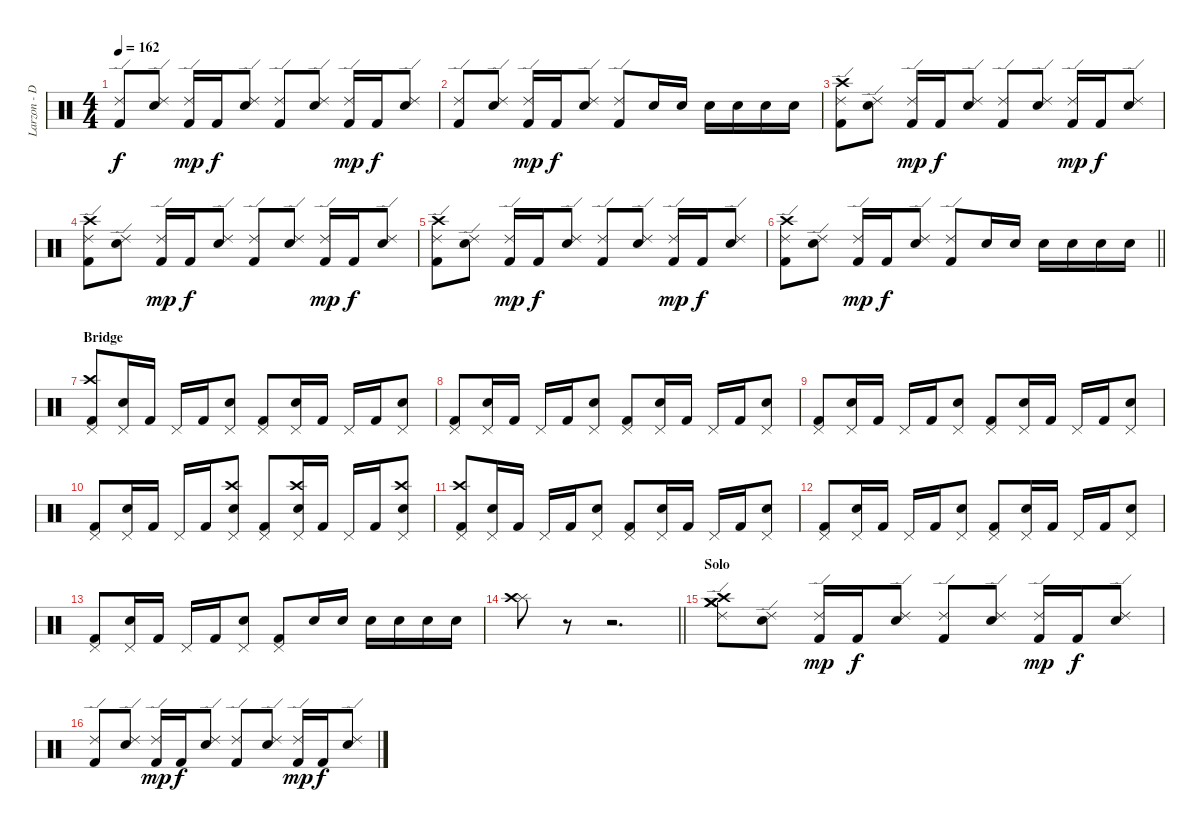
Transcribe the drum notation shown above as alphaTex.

\track ("Larzon - Drums" "Larzon - D") {instrument percussion}
\staff {score}
\articulation defaults
\ts (4 4)
\tempo 162
\clef neutral
\ks c
("Kick (hit) 2" "Ride (edge) 2").8{dy f} ("Snare (hit) 2" "Ride (edge) 2").8 ("Kick (hit) 2" "Ride (edge) 2").16{dy mp} "Kick (hit) 2".16{dy f} ("Snare (hit) 2" "Ride (edge) 2").8 ("Kick (hit) 2" "Ride (edge) 2").8 ("Snare (hit) 2" "Ride (edge) 2").8 ("Kick (hit) 2" "Ride (edge) 2").16{dy mp} "Kick (hit) 2".16{dy f} ("Snare (hit) 2" "Ride (edge) 2").8 |
("Kick (hit) 2" "Ride (edge) 2").8 ("Snare (hit) 2" "Ride (edge) 2").8 ("Kick (hit) 2" "Ride (edge) 2").16{dy mp} "Kick (hit) 2".16{dy f} ("Snare (hit) 2" "Ride (edge) 2").8 ("Kick (hit) 2" "Ride (edge) 2").8 "Snare (hit) 2".16 "Snare (hit) 2".16 "Snare (hit) 2".16 "Snare (hit) 2".16 "Snare (hit) 2".16 "Snare (hit) 2".16 |
("Kick (hit) 2" "Ride (edge) 2" "Crash high (hit)").8 ("Snare (hit) 2" "Ride (edge) 2").8 ("Kick (hit) 2" "Ride (edge) 2").16{dy mp} "Kick (hit) 2".16{dy f} ("Snare (hit) 2" "Ride (edge) 2").8 ("Kick (hit) 2" "Ride (edge) 2").8 ("Snare (hit) 2" "Ride (edge) 2").8 ("Kick (hit) 2" "Ride (edge) 2").16{dy mp} "Kick (hit) 2".16{dy f} ("Snare (hit) 2" "Ride (edge) 2").8 |
("Kick (hit) 2" "Ride (edge) 2" "Crash high (hit)").8 ("Snare (hit) 2" "Ride (edge) 2").8 ("Kick (hit) 2" "Ride (edge) 2").16{dy mp} "Kick (hit) 2".16{dy f} ("Snare (hit) 2" "Ride (edge) 2").8 ("Kick (hit) 2" "Ride (edge) 2").8 ("Snare (hit) 2" "Ride (edge) 2").8 ("Kick (hit) 2" "Ride (edge) 2").16{dy mp} "Kick (hit) 2".16{dy f} ("Snare (hit) 2" "Ride (edge) 2").8 |
("Kick (hit) 2" "Ride (edge) 2" "Crash high (hit)").8 ("Snare (hit) 2" "Ride (edge) 2").8 ("Kick (hit) 2" "Ride (edge) 2").16{dy mp} "Kick (hit) 2".16{dy f} ("Snare (hit) 2" "Ride (edge) 2").8 ("Kick (hit) 2" "Ride (edge) 2").8 ("Snare (hit) 2" "Ride (edge) 2").8 ("Kick (hit) 2" "Ride (edge) 2").16{dy mp} "Kick (hit) 2".16{dy f} ("Snare (hit) 2" "Ride (edge) 2").8 |
\barLineRight lightlight
("Kick (hit) 2" "Ride (edge) 2" "Crash high (hit)").8 ("Snare (hit) 2" "Ride (edge) 2").8 ("Kick (hit) 2" "Ride (edge) 2").16{dy mp} "Kick (hit) 2".16{dy f} ("Snare (hit) 2" "Ride (edge) 2").8 ("Kick (hit) 2" "Ride (edge) 2").8 "Snare (hit) 2".16 "Snare (hit) 2".16 "Snare (hit) 2".16 "Snare (hit) 2".16 "Snare (hit) 2".16 "Snare (hit) 2".16 |
\section ("" "Bridge")
("Kick (hit) 2" "Pedal Hi-Hat (hit)" "Crash high (hit)").8 ("Snare (hit) 2" "Pedal Hi-Hat (hit)").16 "Kick (hit) 2".16 "Pedal Hi-Hat (hit)".16 "Kick (hit) 2".16 ("Snare (hit) 2" "Pedal Hi-Hat (hit)").8 ("Kick (hit) 2" "Pedal Hi-Hat (hit)").8 ("Snare (hit) 2" "Pedal Hi-Hat (hit)").16 "Kick (hit) 2".16 "Pedal Hi-Hat (hit)".16 "Kick (hit) 2".16 ("Snare (hit) 2" "Pedal Hi-Hat (hit)").8 |
("Kick (hit) 2" "Pedal Hi-Hat (hit)").8 ("Snare (hit) 2" "Pedal Hi-Hat (hit)").16 "Kick (hit) 2".16 "Pedal Hi-Hat (hit)".16 "Kick (hit) 2".16 ("Snare (hit) 2" "Pedal Hi-Hat (hit)").8 ("Kick (hit) 2" "Pedal Hi-Hat (hit)").8 ("Snare (hit) 2" "Pedal Hi-Hat (hit)").16 "Kick (hit) 2".16 "Pedal Hi-Hat (hit)".16 "Kick (hit) 2".16 ("Snare (hit) 2" "Pedal Hi-Hat (hit)").8 |
("Kick (hit) 2" "Pedal Hi-Hat (hit)").8 ("Snare (hit) 2" "Pedal Hi-Hat (hit)").16 "Kick (hit) 2".16 "Pedal Hi-Hat (hit)".16 "Kick (hit) 2".16 ("Snare (hit) 2" "Pedal Hi-Hat (hit)").8 ("Kick (hit) 2" "Pedal Hi-Hat (hit)").8 ("Snare (hit) 2" "Pedal Hi-Hat (hit)").16 "Kick (hit) 2".16 "Pedal Hi-Hat (hit)".16 "Kick (hit) 2".16 ("Snare (hit) 2" "Pedal Hi-Hat (hit)").8 |
("Kick (hit) 2" "Pedal Hi-Hat (hit)").8 ("Snare (hit) 2" "Pedal Hi-Hat (hit)").16 "Kick (hit) 2".16 "Pedal Hi-Hat (hit)".16 "Kick (hit) 2".16 ("Snare (hit) 2" "Pedal Hi-Hat (hit)" "Crash high (hit)").8 ("Kick (hit) 2" "Pedal Hi-Hat (hit)").8 ("Snare (hit) 2" "Pedal Hi-Hat (hit)" "Crash high (hit)").16 "Kick (hit) 2".16 "Pedal Hi-Hat (hit)".16 "Kick (hit) 2".16 ("Snare (hit) 2" "Pedal Hi-Hat (hit)" "Crash high (hit)").8 |
("Kick (hit) 2" "Pedal Hi-Hat (hit)" "Crash high (hit)").8 ("Snare (hit) 2" "Pedal Hi-Hat (hit)").16 "Kick (hit) 2".16 "Pedal Hi-Hat (hit)".16 "Kick (hit) 2".16 ("Snare (hit) 2" "Pedal Hi-Hat (hit)").8 ("Kick (hit) 2" "Pedal Hi-Hat (hit)").8 ("Snare (hit) 2" "Pedal Hi-Hat (hit)").16 "Kick (hit) 2".16 "Pedal Hi-Hat (hit)".16 "Kick (hit) 2".16 ("Snare (hit) 2" "Pedal Hi-Hat (hit)").8 |
("Kick (hit) 2" "Pedal Hi-Hat (hit)").8 ("Snare (hit) 2" "Pedal Hi-Hat (hit)").16 "Kick (hit) 2".16 "Pedal Hi-Hat (hit)".16 "Kick (hit) 2".16 ("Snare (hit) 2" "Pedal Hi-Hat (hit)").8 ("Kick (hit) 2" "Pedal Hi-Hat (hit)").8 ("Snare (hit) 2" "Pedal Hi-Hat (hit)").16 "Kick (hit) 2".16 "Pedal Hi-Hat (hit)".16 "Kick (hit) 2".16 ("Snare (hit) 2" "Pedal Hi-Hat (hit)").8 |
("Kick (hit) 2" "Pedal Hi-Hat (hit)").8 ("Snare (hit) 2" "Pedal Hi-Hat (hit)").16 "Kick (hit) 2".16 "Pedal Hi-Hat (hit)".16 "Kick (hit) 2".16 ("Snare (hit) 2" "Pedal Hi-Hat (hit)").8 ("Kick (hit) 2" "Pedal Hi-Hat (hit)").8 "Snare (hit) 2".16 "Snare (hit) 2".16 "Snare (hit) 2".16 "Snare (hit) 2".16 "Snare (hit) 2".16 "Snare (hit) 2".16 |
\barLineRight lightlight
("Splash (hit)" "Crash high (hit)").8 r.8 r.2{d} |
\section ("" "Solo")
("Crash medium (hit)" "Ride (edge) 2" "Crash medium (hit)" "Crash high (hit)").8 ("Snare (hit) 2" "Ride (edge) 2").8 ("Kick (hit) 2" "Ride (edge) 2").16{dy mp} "Kick (hit) 2".16{dy f} ("Snare (hit) 2" "Ride (edge) 2").8 ("Kick (hit) 2" "Ride (edge) 2").8 ("Snare (hit) 2" "Ride (edge) 2").8 ("Kick (hit) 2" "Ride (edge) 2").16{dy mp} "Kick (hit) 2".16{dy f} ("Snare (hit) 2" "Ride (edge) 2").8 |
("Kick (hit) 2" "Ride (edge) 2").8 ("Snare (hit) 2" "Ride (edge) 2").8 ("Kick (hit) 2" "Ride (edge) 2").16{dy mp} "Kick (hit) 2".16{dy f} ("Snare (hit) 2" "Ride (edge) 2").8 ("Kick (hit) 2" "Ride (edge) 2").8 ("Snare (hit) 2" "Ride (edge) 2").8 ("Kick (hit) 2" "Ride (edge) 2").16{dy mp} "Kick (hit) 2".16{dy f} ("Snare (hit) 2" "Ride (edge) 2").8
